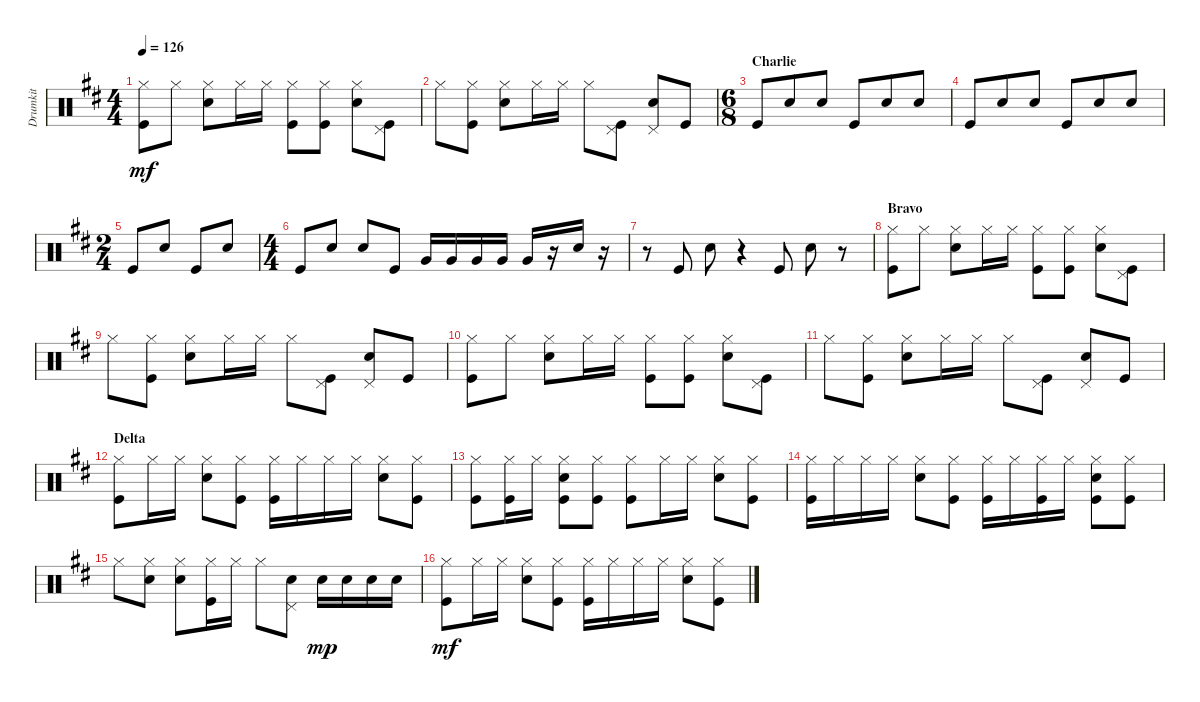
\track ("Drumkit" "Drumkit") {instrument percussion}
\staff {score}
\articulation defaults
\ts (4 4)
\tempo 126
\clef neutral
\ks bminor
("Hi-Hat (closed)" "Kick (hit)").8{dy mf} "Hi-Hat (closed)".8 ("Hi-Hat (closed)" "Snare (hit) 2").8 "Hi-Hat (closed)".16 "Hi-Hat (closed)".16 ("Hi-Hat (closed)" "Kick (hit)").8 ("Hi-Hat (closed)" "Kick (hit)").8 ("Hi-Hat (closed)" "Snare (hit) 2").8 ("Kick (hit)" "Pedal Hi-Hat (hit)").8 |
"Hi-Hat (closed)".8 ("Hi-Hat (closed)" "Kick (hit)").8 ("Hi-Hat (closed)" "Snare (hit) 2").8 "Hi-Hat (closed)".16 "Hi-Hat (closed)".16 "Hi-Hat (closed)".8 ("Kick (hit)" "Pedal Hi-Hat (hit)").8 ("Snare (hit) 2" "Pedal Hi-Hat (hit)").8 "Kick (hit)".8 |
\ts (6 8)
\section ("" "Charlie")
"Kick (hit)".8 "Snare (hit) 2".8 "Snare (hit) 2".8 "Kick (hit)".8 "Snare (hit) 2".8 "Snare (hit) 2".8 |
"Kick (hit)".8 "Snare (hit) 2".8 "Snare (hit) 2".8 "Kick (hit)".8 "Snare (hit) 2".8 "Snare (hit) 2".8 |
\ts (2 4)
"Kick (hit)".8 "Snare (hit) 2".8 "Kick (hit)".8 "Snare (hit) 2".8 |
\ts (4 4)
"Kick (hit)".8 "Snare (hit) 2".8 "Snare (hit) 2".8 "Kick (hit)".8 "Very Low Tom (hit)".16 "Very Low Tom (hit)".16 "Very Low Tom (hit)".16 "Very Low Tom (hit)".16 "Very Low Tom (hit)".16 r.16 "Snare (hit) 2".16 r.16 |
r.8 "Kick (hit)".8 "Snare (hit) 2".8 r.4 "Kick (hit)".8 "Snare (hit) 2".8 r.8 |
\section ("" "Bravo")
("Hi-Hat (closed)" "Kick (hit)").8 "Hi-Hat (closed)".8 ("Hi-Hat (closed)" "Snare (hit) 2").8 "Hi-Hat (closed)".16 "Hi-Hat (closed)".16 ("Hi-Hat (closed)" "Kick (hit)").8 ("Hi-Hat (closed)" "Kick (hit)").8 ("Hi-Hat (closed)" "Snare (hit) 2").8 ("Kick (hit)" "Pedal Hi-Hat (hit)").8 |
"Hi-Hat (closed)".8 ("Hi-Hat (closed)" "Kick (hit)").8 ("Hi-Hat (closed)" "Snare (hit) 2").8 "Hi-Hat (closed)".16 "Hi-Hat (closed)".16 "Hi-Hat (closed)".8 ("Kick (hit)" "Pedal Hi-Hat (hit)").8 ("Snare (hit) 2" "Pedal Hi-Hat (hit)").8 "Kick (hit)".8 |
("Hi-Hat (closed)" "Kick (hit)").8 "Hi-Hat (closed)".8 ("Hi-Hat (closed)" "Snare (hit) 2").8 "Hi-Hat (closed)".16 "Hi-Hat (closed)".16 ("Hi-Hat (closed)" "Kick (hit)").8 ("Hi-Hat (closed)" "Kick (hit)").8 ("Hi-Hat (closed)" "Snare (hit) 2").8 ("Kick (hit)" "Pedal Hi-Hat (hit)").8 |
"Hi-Hat (closed)".8 ("Hi-Hat (closed)" "Kick (hit)").8 ("Hi-Hat (closed)" "Snare (hit) 2").8 "Hi-Hat (closed)".16 "Hi-Hat (closed)".16 "Hi-Hat (closed)".8 ("Kick (hit)" "Pedal Hi-Hat (hit)").8 ("Snare (hit) 2" "Pedal Hi-Hat (hit)").8 "Kick (hit)".8 |
\section ("" "Delta")
("Hi-Hat (closed)" "Kick (hit)").8 "Hi-Hat (closed)".16 "Hi-Hat (closed)".16 ("Hi-Hat (closed)" "Snare (hit) 2").8 ("Hi-Hat (closed)" "Kick (hit)").8 ("Hi-Hat (closed)" "Kick (hit)").16 "Hi-Hat (closed)".16 "Hi-Hat (closed)".16 "Hi-Hat (closed)".16 ("Hi-Hat (closed)" "Snare (hit) 2").8 ("Hi-Hat (closed)" "Kick (hit)").8 |
("Hi-Hat (closed)" "Kick (hit)").8 ("Hi-Hat (closed)" "Kick (hit)").16 "Hi-Hat (closed)".16 ("Hi-Hat (closed)" "Kick (hit)" "Snare (hit) 2").8 ("Hi-Hat (closed)" "Kick (hit)").8 ("Hi-Hat (closed)" "Kick (hit)").8 "Hi-Hat (closed)".16 "Hi-Hat (closed)".16 ("Hi-Hat (closed)" "Snare (hit) 2").8 ("Hi-Hat (closed)" "Kick (hit)").8 |
("Hi-Hat (closed)" "Kick (hit)").16 "Hi-Hat (closed)".16 "Hi-Hat (closed)".16 "Hi-Hat (closed)".16 ("Hi-Hat (closed)" "Snare (hit) 2").8 ("Hi-Hat (closed)" "Kick (hit)").8 ("Hi-Hat (closed)" "Kick (hit)").16 "Hi-Hat (closed)".16 ("Hi-Hat (closed)" "Kick (hit)").16 "Hi-Hat (closed)".16 ("Hi-Hat (closed)" "Kick (hit)" "Snare (hit) 2").8 ("Hi-Hat (closed)" "Kick (hit)").8 |
"Hi-Hat (closed)".8 ("Snare (hit) 2" "Hi-Hat (closed)").8 ("Snare (hit) 2" "Hi-Hat (closed)").8 ("Kick (hit)" "Hi-Hat (closed)").16 "Hi-Hat (closed)".16 "Hi-Hat (closed)".8 ("Snare (hit) 2" "Pedal Hi-Hat (hit)").8 "Snare (hit) 2".16{dy mp} "Snare (hit) 2".16 "Snare (hit) 2".16 "Snare (hit) 2".16 |
("Hi-Hat (closed)" "Kick (hit)").8{dy mf} "Hi-Hat (closed)".16 "Hi-Hat (closed)".16 ("Hi-Hat (closed)" "Snare (hit) 2").8 ("Hi-Hat (closed)" "Kick (hit)").8 ("Hi-Hat (closed)" "Kick (hit)").16 "Hi-Hat (closed)".16 "Hi-Hat (closed)".16 "Hi-Hat (closed)".16 ("Hi-Hat (closed)" "Snare (hit) 2").8 ("Hi-Hat (closed)" "Kick (hit)").8
